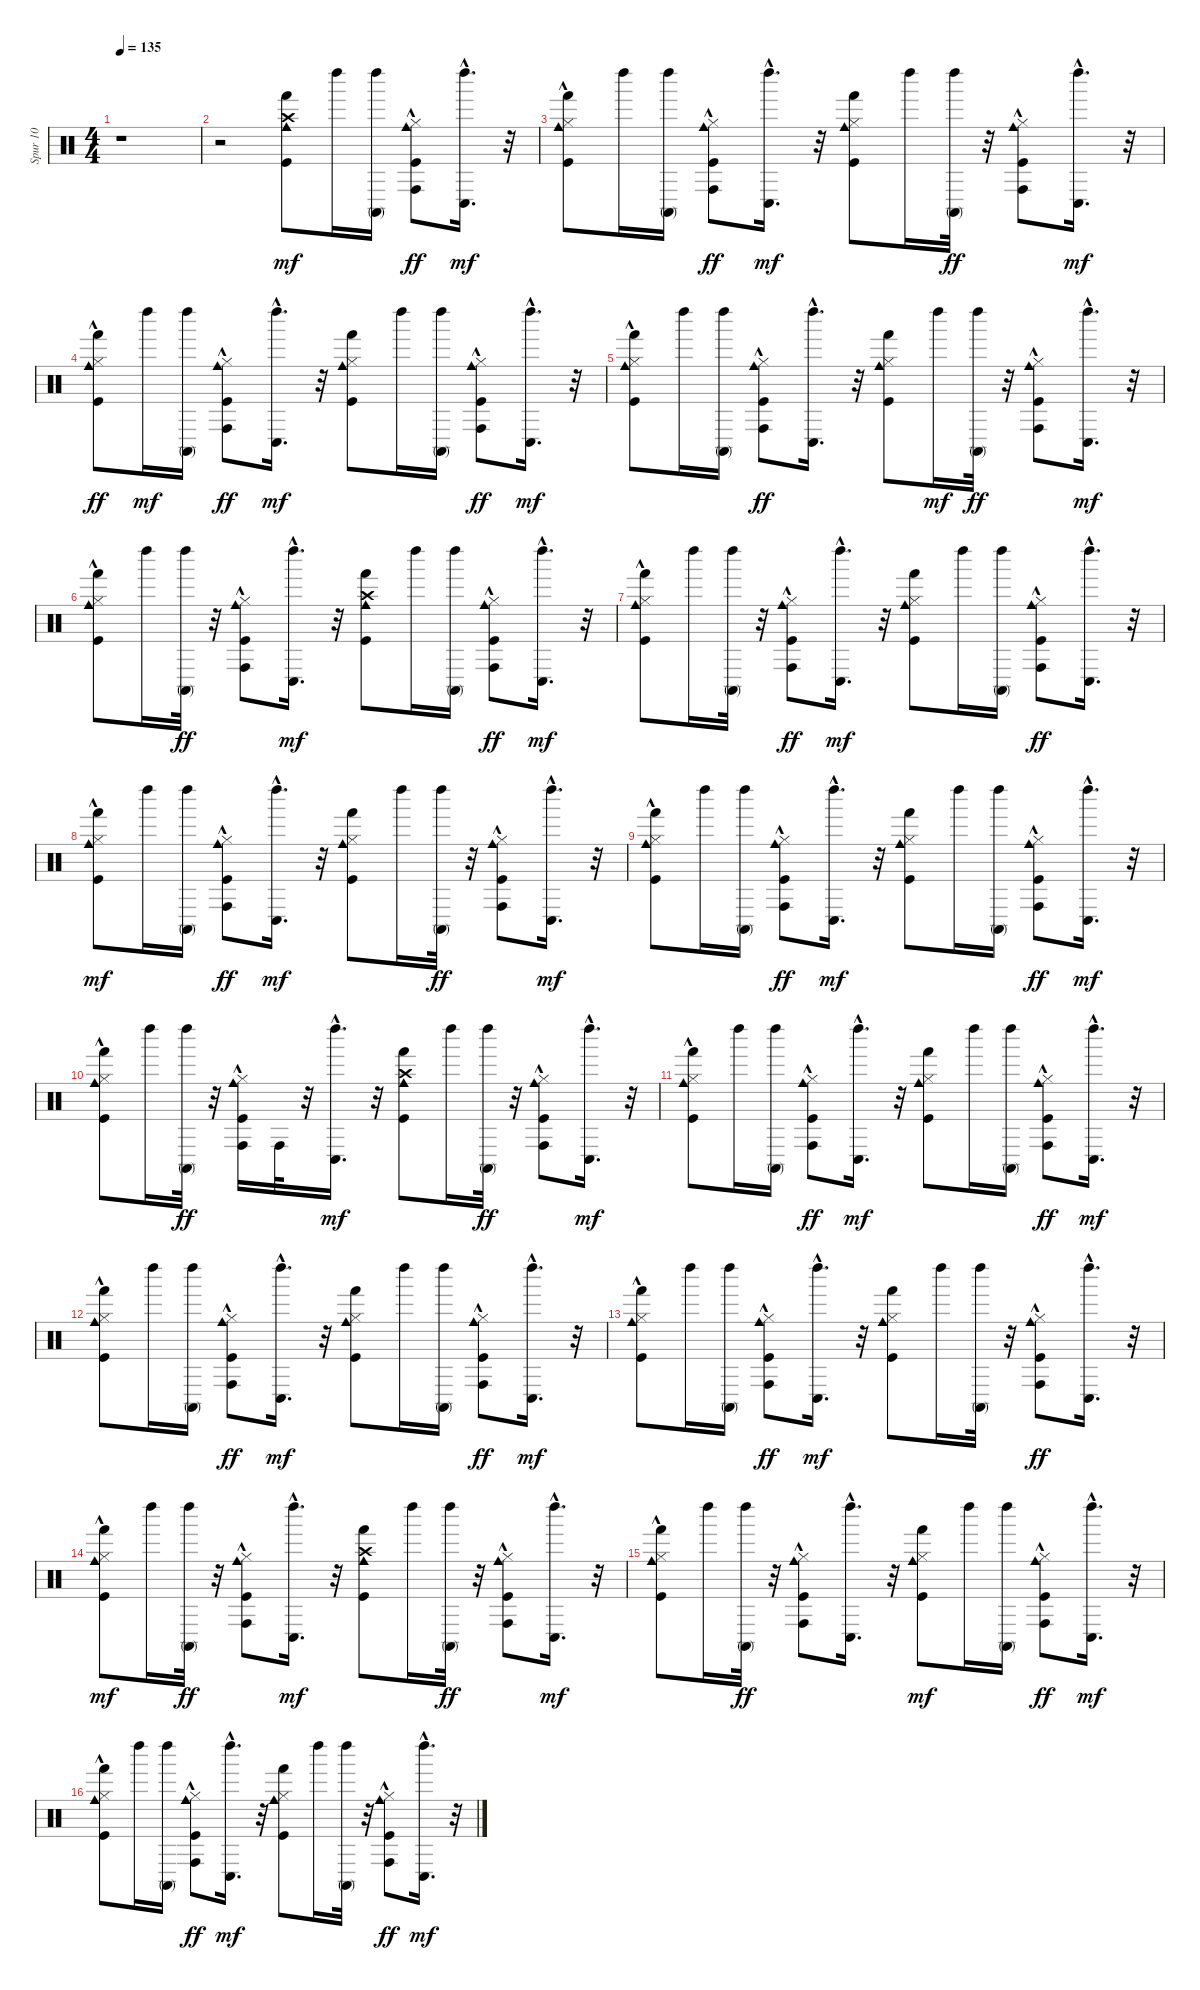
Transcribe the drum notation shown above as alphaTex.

\track ("Spur 10" "Spur 10") {instrument percussion}
\staff {score}
\articulation defaults
\ts (4 4)
\tempo 135
\clef neutral
\ks c
r.1{dy mf} |
r.2 ("Kick (hit)" "Crash high (hit)" "Cowbell medium (hit)" "Hand (hit)").8 "Left Maraca (hit)".16 ("Conga high (mute)" "Left Maraca (hit)").16 ("Kick (hit)" "Hi-Hat (closed)" "Cowbell medium (hit)" "Conga high (hit)"{hac}).8{dy ff} ("Conga low (hit)"{hac} "Left Maraca (hit)").16{d dy mf} r.32 |
("Kick (hit)" "Hi-Hat (closed)" "Cowbell medium (hit)" "Hand (hit)"{hac}).8 "Left Maraca (hit)".16 ("Conga high (mute)" "Left Maraca (hit)").16 ("Hi-Hat (closed)" "Cowbell medium (hit)" "Kick (hit)"{hac} "Conga high (hit)"{hac}).8{dy ff} ("Conga low (hit)"{hac} "Left Maraca (hit)").16{d dy mf} r.32 ("Kick (hit)" "Hi-Hat (closed)" "Cowbell medium (hit)" "Hand (hit)").8 "Left Maraca (hit)".16 ("Left Maraca (hit)" "Conga high (mute)").32{dy ff} r.32 ("Kick (hit)" "Hi-Hat (closed)" "Cowbell medium (hit)" "Conga high (hit)"{hac}).8 ("Conga low (hit)"{hac} "Left Maraca (hit)").16{d dy mf} r.32 |
("Hi-Hat (closed)" "Cowbell medium (hit)" "Kick (hit)" "Hand (hit)"{hac}).8{dy ff} "Left Maraca (hit)".16{dy mf} ("Conga high (mute)" "Left Maraca (hit)").16 ("Kick (hit)"{hac} "Hi-Hat (closed)" "Cowbell medium (hit)" "Conga high (hit)"{hac}).8{dy ff} ("Conga low (hit)"{hac} "Left Maraca (hit)").16{d dy mf} r.32 ("Kick (hit)" "Hi-Hat (closed)" "Cowbell medium (hit)" "Hand (hit)").8 "Left Maraca (hit)".16 ("Conga high (mute)" "Left Maraca (hit)").16 ("Kick (hit)" "Hi-Hat (closed)" "Cowbell medium (hit)" "Conga high (hit)"{hac}).8{dy ff} ("Conga low (hit)"{hac} "Left Maraca (hit)").16{d dy mf} r.32 |
("Kick (hit)" "Hi-Hat (closed)" "Cowbell medium (hit)" "Hand (hit)"{hac}).8 "Left Maraca (hit)".16 ("Conga high (mute)" "Left Maraca (hit)").16 ("Kick (hit)"{hac} "Hi-Hat (closed)" "Cowbell medium (hit)" "Conga high (hit)"{hac}).8{dy ff} ("Left Maraca (hit)" "Conga low (hit)"{hac}).16{d} r.32 ("Hi-Hat (closed)" "Cowbell medium (hit)" "Kick (hit)" "Hand (hit)").8 "Left Maraca (hit)".16{dy mf} ("Left Maraca (hit)" "Conga high (mute)").32{dy ff} r.32 ("Kick (hit)" "Hi-Hat (closed)" "Cowbell medium (hit)" "Conga high (hit)"{hac}).8 ("Conga low (hit)"{hac} "Left Maraca (hit)").16{d dy mf} r.32 |
("Kick (hit)" "Hi-Hat (closed)" "Cowbell medium (hit)" "Hand (hit)"{hac}).8 "Left Maraca (hit)".16 ("Left Maraca (hit)" "Conga high (mute)").32{dy ff} r.32 ("Hi-Hat (closed)" "Kick (hit)"{hac} "Cowbell medium (hit)" "Conga high (hit)"{hac}).8 ("Conga low (hit)"{hac} "Left Maraca (hit)").16{d dy mf} r.32 ("Kick (hit)" "Crash high (hit)" "Cowbell medium (hit)" "Hand (hit)").8 "Left Maraca (hit)".16 ("Conga high (mute)" "Left Maraca (hit)").16 ("Kick (hit)" "Hi-Hat (closed)" "Cowbell medium (hit)" "Conga high (hit)"{hac}).8{dy ff} ("Conga low (hit)"{hac} "Left Maraca (hit)").16{d dy mf} r.32 |
("Kick (hit)" "Hi-Hat (closed)" "Cowbell medium (hit)" "Hand (hit)"{hac}).8 "Left Maraca (hit)".16 ("Conga high (mute)" "Left Maraca (hit)").32 r.32 ("Kick (hit)"{hac} "Hi-Hat (closed)" "Cowbell medium (hit)" "Conga high (hit)"{hac}).8{dy ff} ("Conga low (hit)"{hac} "Left Maraca (hit)").16{d dy mf} r.32 ("Hi-Hat (closed)" "Kick (hit)" "Cowbell medium (hit)" "Hand (hit)").8 "Left Maraca (hit)".16 ("Conga high (mute)" "Left Maraca (hit)").16 ("Kick (hit)" "Hi-Hat (closed)" "Cowbell medium (hit)" "Conga high (hit)"{hac}).8{dy ff} ("Left Maraca (hit)" "Conga low (hit)"{hac}).16{d} r.32 |
("Hi-Hat (closed)" "Kick (hit)" "Cowbell medium (hit)" "Hand (hit)"{hac}).8{dy mf} "Left Maraca (hit)".16 ("Conga high (mute)" "Left Maraca (hit)").16 ("Kick (hit)"{hac} "Hi-Hat (closed)" "Cowbell medium (hit)" "Conga high (hit)"{hac}).8{dy ff} ("Conga low (hit)"{hac} "Left Maraca (hit)").16{d dy mf} r.32 ("Kick (hit)" "Hi-Hat (closed)" "Cowbell medium (hit)" "Hand (hit)").8 "Left Maraca (hit)".16 ("Left Maraca (hit)" "Conga high (mute)").32{dy ff} r.32 ("Kick (hit)" "Hi-Hat (closed)" "Cowbell medium (hit)" "Conga high (hit)"{hac}).8 ("Conga low (hit)"{hac} "Left Maraca (hit)").16{d dy mf} r.32 |
("Hi-Hat (closed)" "Kick (hit)" "Cowbell medium (hit)" "Hand (hit)"{hac}).8 "Left Maraca (hit)".16 ("Conga high (mute)" "Left Maraca (hit)").16 ("Kick (hit)"{hac} "Hi-Hat (closed)" "Cowbell medium (hit)" "Conga high (hit)"{hac}).8{dy ff} ("Conga low (hit)"{hac} "Left Maraca (hit)").16{d dy mf} r.32 ("Kick (hit)" "Hi-Hat (closed)" "Cowbell medium (hit)" "Hand (hit)").8 "Left Maraca (hit)".16 ("Conga high (mute)" "Left Maraca (hit)").16 ("Hi-Hat (closed)" "Cowbell medium (hit)" "Kick (hit)" "Conga high (hit)"{hac}).8{dy ff} ("Conga low (hit)"{hac} "Left Maraca (hit)").16{d dy mf} r.32 |
("Kick (hit)" "Hi-Hat (closed)" "Cowbell medium (hit)" "Hand (hit)"{hac}).8 "Left Maraca (hit)".16 ("Left Maraca (hit)" "Conga high (mute)").32{dy ff} r.32 ("Kick (hit)"{hac} "Hi-Hat (closed)" "Cowbell medium (hit)" "Conga high (hit)").16 "Conga high (hit)".32 r.32 ("Conga low (hit)"{hac} "Left Maraca (hit)").16{d dy mf} r.32 ("Crash high (hit)" "Kick (hit)" "Cowbell medium (hit)" "Hand (hit)").8 "Left Maraca (hit)".16 ("Left Maraca (hit)" "Conga high (mute)").32{dy ff} r.32 ("Kick (hit)" "Hi-Hat (closed)" "Cowbell medium (hit)" "Conga high (hit)"{hac}).8 ("Conga low (hit)"{hac} "Left Maraca (hit)").16{d dy mf} r.32 |
("Kick (hit)" "Hi-Hat (closed)" "Cowbell medium (hit)" "Hand (hit)"{hac}).8 "Left Maraca (hit)".16 ("Conga high (mute)" "Left Maraca (hit)").16 ("Hi-Hat (closed)" "Cowbell medium (hit)" "Kick (hit)"{hac} "Conga high (hit)"{hac}).8{dy ff} ("Conga low (hit)"{hac} "Left Maraca (hit)").16{d dy mf} r.32 ("Kick (hit)" "Hi-Hat (closed)" "Cowbell medium (hit)" "Hand (hit)").8 "Left Maraca (hit)".16 ("Conga high (mute)" "Left Maraca (hit)").16 ("Kick (hit)" "Hi-Hat (closed)" "Cowbell medium (hit)" "Conga high (hit)"{hac}).8{dy ff} ("Conga low (hit)"{hac} "Left Maraca (hit)").16{d dy mf} r.32 |
("Kick (hit)" "Hi-Hat (closed)" "Cowbell medium (hit)" "Hand (hit)"{hac}).8 "Left Maraca (hit)".16 ("Conga high (mute)" "Left Maraca (hit)").16 ("Kick (hit)"{hac} "Hi-Hat (closed)" "Cowbell medium (hit)" "Conga high (hit)"{hac}).8{dy ff} ("Conga low (hit)"{hac} "Left Maraca (hit)").16{d dy mf} r.32 ("Hi-Hat (closed)" "Kick (hit)" "Cowbell medium (hit)" "Hand (hit)").8 "Left Maraca (hit)".16 ("Conga high (mute)" "Left Maraca (hit)").16 ("Kick (hit)" "Hi-Hat (closed)" "Cowbell medium (hit)" "Conga high (hit)"{hac}).8{dy ff} ("Conga low (hit)"{hac} "Left Maraca (hit)").16{d dy mf} r.32 |
("Kick (hit)" "Hi-Hat (closed)" "Cowbell medium (hit)" "Hand (hit)"{hac}).8 "Left Maraca (hit)".16 ("Conga high (mute)" "Left Maraca (hit)").16 ("Kick (hit)"{hac} "Hi-Hat (closed)" "Cowbell medium (hit)" "Conga high (hit)"{hac}).8{dy ff} ("Conga low (hit)"{hac} "Left Maraca (hit)").16{d dy mf} r.32 ("Kick (hit)" "Hi-Hat (closed)" "Cowbell medium (hit)" "Hand (hit)").8 "Left Maraca (hit)".16 ("Conga high (mute)" "Left Maraca (hit)").32 r.32 ("Hi-Hat (closed)" "Cowbell medium (hit)" "Kick (hit)" "Conga high (hit)"{hac}).8{dy ff} ("Left Maraca (hit)" "Conga low (hit)"{hac}).16{d} r.32 |
("Kick (hit)" "Hi-Hat (closed)" "Cowbell medium (hit)" "Hand (hit)"{hac}).8{dy mf} "Left Maraca (hit)".16 ("Left Maraca (hit)" "Conga high (mute)").32{dy ff} r.32 ("Hi-Hat (closed)" "Kick (hit)"{hac} "Cowbell medium (hit)" "Conga high (hit)"{hac}).8 ("Conga low (hit)"{hac} "Left Maraca (hit)").16{d dy mf} r.32 ("Crash high (hit)" "Kick (hit)" "Cowbell medium (hit)" "Hand (hit)").8 "Left Maraca (hit)".16 ("Left Maraca (hit)" "Conga high (mute)").32{dy ff} r.32 ("Kick (hit)" "Hi-Hat (closed)" "Cowbell medium (hit)" "Conga high (hit)"{hac}).8 ("Conga low (hit)"{hac} "Left Maraca (hit)").16{d dy mf} r.32 |
("Kick (hit)" "Hi-Hat (closed)" "Cowbell medium (hit)" "Hand (hit)"{hac}).8 "Left Maraca (hit)".16 ("Left Maraca (hit)" "Conga high (mute)").32{dy ff} r.32 ("Kick (hit)"{hac} "Hi-Hat (closed)" "Cowbell medium (hit)" "Conga high (hit)"{hac}).8 ("Left Maraca (hit)" "Conga low (hit)"{hac}).16{d} r.32 ("Hi-Hat (closed)" "Kick (hit)" "Cowbell medium (hit)" "Hand (hit)").8{dy mf} "Left Maraca (hit)".16 ("Conga high (mute)" "Left Maraca (hit)").16 ("Kick (hit)" "Hi-Hat (closed)" "Cowbell medium (hit)" "Conga high (hit)"{hac}).8{dy ff} ("Conga low (hit)"{hac} "Left Maraca (hit)").16{d dy mf} r.32 |
("Kick (hit)" "Hi-Hat (closed)" "Cowbell medium (hit)" "Hand (hit)"{hac}).8 "Left Maraca (hit)".16 ("Conga high (mute)" "Left Maraca (hit)").16 ("Hi-Hat (closed)" "Kick (hit)"{hac} "Cowbell medium (hit)" "Conga high (hit)"{hac}).8{dy ff} ("Conga low (hit)"{hac} "Left Maraca (hit)").16{d dy mf} r.32 ("Kick (hit)" "Hi-Hat (closed)" "Cowbell medium (hit)" "Hand (hit)").8 "Left Maraca (hit)".16 ("Conga high (mute)" "Left Maraca (hit)").32 r.32 ("Kick (hit)" "Hi-Hat (closed)" "Cowbell medium (hit)" "Conga high (hit)"{hac}).8{dy ff} ("Conga low (hit)"{hac} "Left Maraca (hit)").16{d dy mf} r.32
